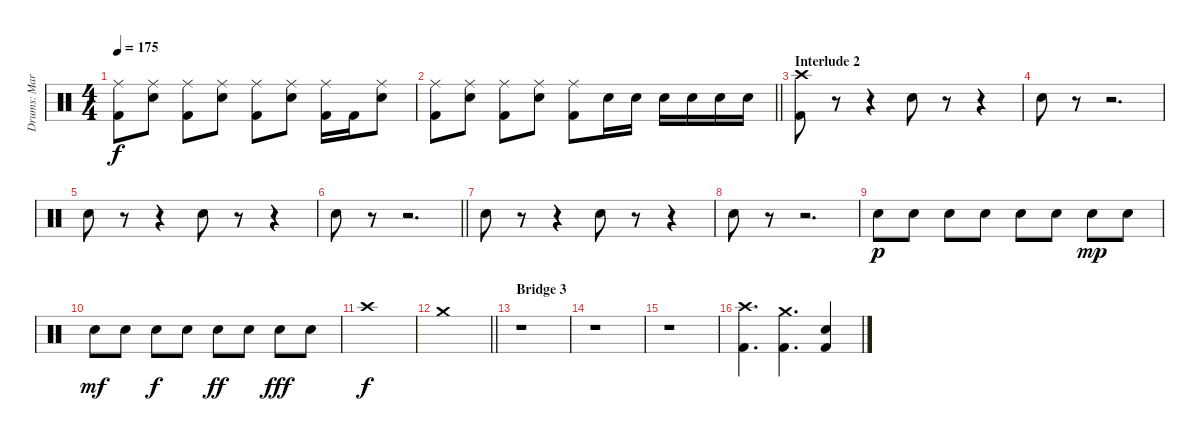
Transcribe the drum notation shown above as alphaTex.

\track ("Drums: Martin Herzinger" "Drums: Mar") {instrument percussion}
\staff {score}
\articulation defaults
\ts (4 4)
\tempo 175
\clef neutral
\ks aminor
("Ride (middle)" "Kick (hit) 2").8{dy f} ("Ride (middle)" "Snare (hit) 2").8 ("Ride (middle)" "Kick (hit) 2").8 ("Ride (middle)" "Snare (hit) 2").8 ("Ride (middle)" "Kick (hit) 2").8 ("Ride (middle)" "Snare (hit) 2").8 ("Ride (middle)" "Kick (hit) 2").16 "Kick (hit) 2".16 ("Ride (middle)" "Snare (hit) 2").8 |
\barLineRight lightlight
("Ride (middle)" "Kick (hit) 2").8 ("Ride (middle)" "Snare (hit) 2").8 ("Ride (middle)" "Kick (hit) 2").8 ("Ride (middle)" "Snare (hit) 2").8 ("Ride (middle)" "Kick (hit) 2").8 "Snare (hit) 2".16 "Snare (hit) 2".16 "Snare (hit) 2".16 "Snare (hit) 2".16 "Snare (hit) 2".16 "Snare (hit) 2".16 |
\section ("" "Interlude 2")
("Crash high (hit)" "Kick (hit) 2").8 r.8 r.4 "Snare (hit) 2".8 r.8 r.4 |
"Snare (hit) 2".8 r.8 r.2{d} |
"Snare (hit) 2".8 r.8 r.4 "Snare (hit) 2".8 r.8 r.4 |
\barLineRight lightlight "Snare (hit) 2".8
r.8 r.2{d} |
"Snare (hit) 2".8 r.8 r.4 "Snare (hit) 2".8 r.8 r.4 |
"Snare (hit) 2".8 r.8 r.2{d} |
"Snare (hit) 2".8{dy p} "Snare (hit) 2".8 "Snare (hit) 2".8 "Snare (hit) 2".8 "Snare (hit) 2".8 "Snare (hit) 2".8 "Snare (hit) 2".8{dy mp} "Snare (hit) 2".8 |
"Snare (hit) 2".8{dy mf} "Snare (hit) 2".8 "Snare (hit) 2".8{dy f} "Snare (hit) 2".8 "Snare (hit) 2".8{dy ff} "Snare (hit) 2".8 "Snare (hit) 2".8{dy fff} "Snare (hit) 2".8 |
"Crash high (hit)".1{dy f} |
\barLineRight lightlight "Crash medium (hit)".1
|
\section ("" "Bridge 3")
r.1 |
r.1 |
r.1 |
("Crash high (hit)" "Kick (hit) 2").4{d} ("Crash medium (hit)" "Kick (hit) 2").4{d} ("Snare (hit) 2" "Kick (hit) 2").4
